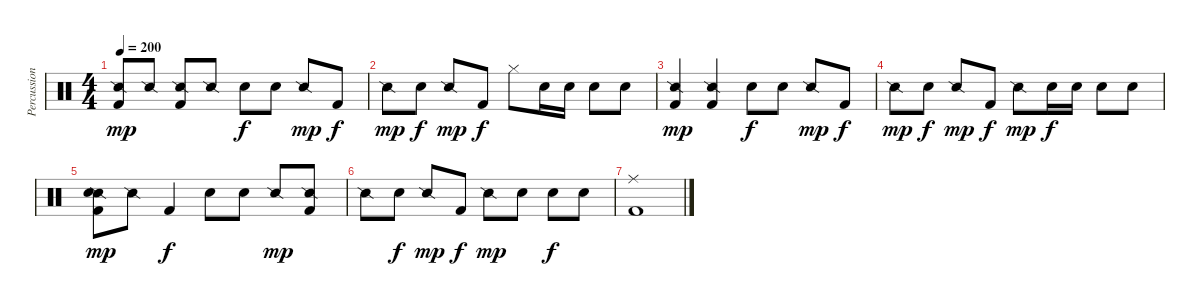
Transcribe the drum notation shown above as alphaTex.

\track ("Percussion" "Percussion") {instrument percussion}
\staff {score}
\articulation defaults
\ts (4 4)
\tempo 200
\clef neutral
\ks c
("Snare (side stick) 2" "Kick (hit) 2").8{dy mp} "Snare (side stick) 2".8 ("Snare (side stick) 2" "Kick (hit) 2").8 "Snare (side stick) 2".8 "Electric Snare (hit)".8{dy f} "Electric Snare (hit)".8 "Snare (side stick) 2".8{dy mp} "Kick (hit) 2".8{dy f} |
"Snare (side stick) 2".8{dy mp} "Electric Snare (hit)".8{dy f} "Snare (side stick) 2".8{dy mp} "Kick (hit) 2".8{dy f} "Hi-Hat (closed)".8 "Electric Snare (hit)".16 "Electric Snare (hit)".16 "Electric Snare (hit)".8 "Electric Snare (hit)".8 |
("Kick (hit) 2" "Snare (side stick) 2").4{dy mp} ("Kick (hit) 2" "Snare (side stick) 2").4 "Electric Snare (hit)".8{dy f} "Electric Snare (hit)".8 "Snare (side stick) 2".8{dy mp} "Kick (hit) 2".8{dy f} |
"Snare (side stick) 2".8{dy mp} "Electric Snare (hit)".8{dy f} "Snare (side stick) 2".8{dy mp} "Kick (hit) 2".8{dy f} "Snare (side stick) 2".8{dy mp} "Electric Snare (hit)".16{dy f} "Electric Snare (hit)".16 "Electric Snare (hit)".8 "Electric Snare (hit)".8 |
("Snare (side stick) 2" "Electric Snare (hit)" "Kick (hit) 2").8{dy mp} "Snare (side stick) 2".8 "Kick (hit) 2".4{dy f} "Electric Snare (hit)".8 "Electric Snare (hit)".8 "Snare (side stick) 2".8{dy mp} ("Snare (side stick) 2" "Kick (hit) 2").8 |
"Snare (side stick) 2".8 "Electric Snare (hit)".8{dy f} "Snare (side stick) 2".8{dy mp} "Kick (hit) 2".8{dy f} "Snare (side stick) 2".8{dy mp} "Electric Snare (hit)".8 "Electric Snare (hit)".8{dy f} "Electric Snare (hit)".8 |
("Kick (hit) 2" "Ride (middle)").1
